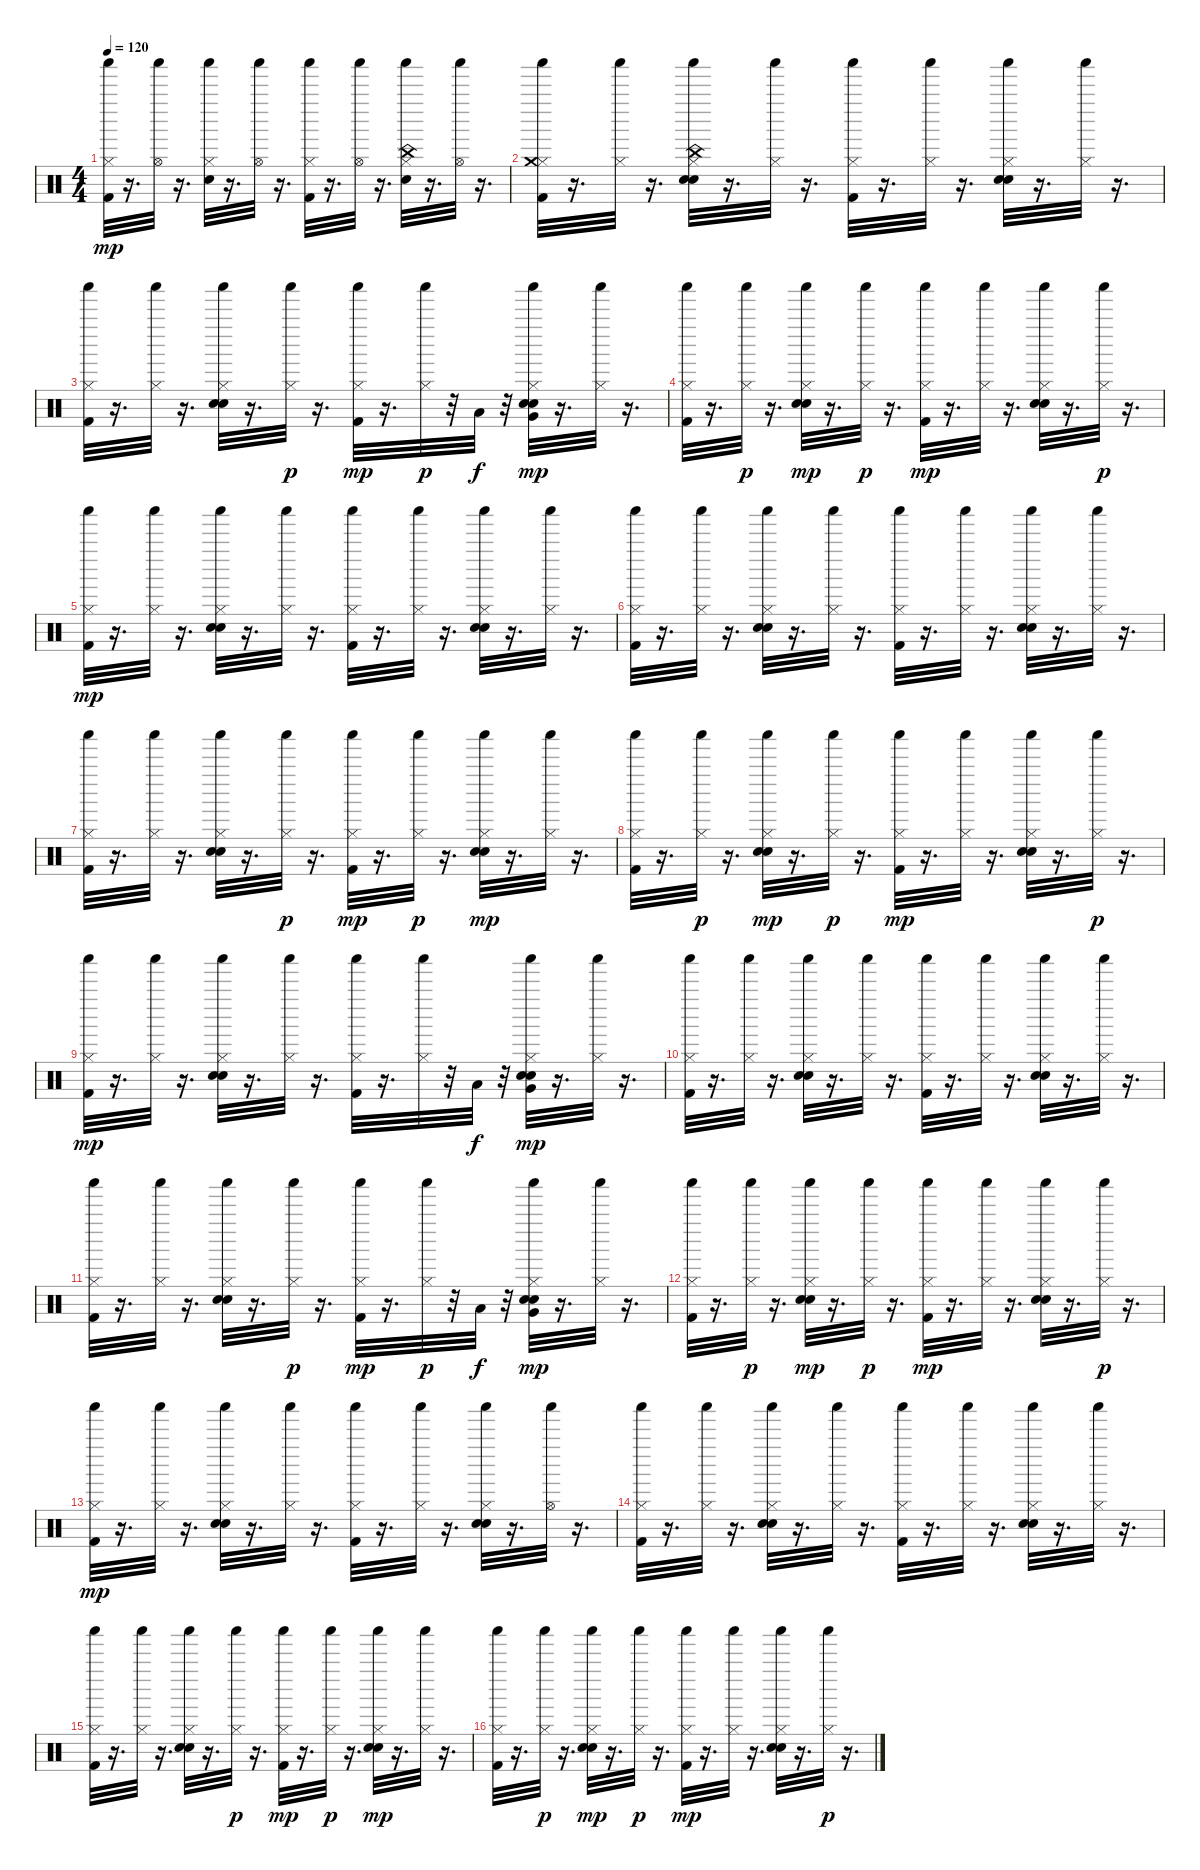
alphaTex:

\track "" {instrument percussion}
\staff {score}
\articulation defaults
\ts (4 4)
\tempo 120
\clef neutral
\ks c
("Kick (hit) 2" "Hi-Hat (closed)" "Shaker (hit)").32{dy mp} r.16{d} ("Hi-Hat (open)" "Shaker (hit)").32 r.16{d} ("Electric Snare (hit)" "Hi-Hat (closed)" "Shaker (hit)").32 r.16{d} ("Hi-Hat (open)" "Shaker (hit)").32 r.16{d} ("Kick (hit) 2" "Hi-Hat (closed)" "Shaker (hit)").32 r.16{d} ("Hi-Hat (open)" "Shaker (hit)").32 r.16{d} ("Electric Snare (hit)" "Hi-Hat (closed)" "China (hit)" "Shaker (hit)").32 r.16{d} ("Hi-Hat (open)" "Shaker (hit)").32 r.16{d} |
("Kick (hit) 2" "Hi-Hat (closed)" "Crash medium (hit)" "Shaker (hit)").32 r.16{d} ("Hi-Hat (closed)" "Shaker (hit)").32 r.16{d} ("Hand Clap (hit)" "Electric Snare (hit)" "Hi-Hat (closed)" "China (hit)" "Shaker (hit)").32 r.16{d} ("Hi-Hat (closed)" "Shaker (hit)").32 r.16{d} ("Kick (hit) 2" "Hi-Hat (closed)" "Shaker (hit)").32 r.16{d} ("Hi-Hat (closed)" "Shaker (hit)").32 r.16{d} ("Hand Clap (hit)" "Electric Snare (hit)" "Hi-Hat (closed)" "Shaker (hit)").32 r.16{d} ("Hi-Hat (closed)" "Shaker (hit)").32 r.16{d} |
("Kick (hit) 2" "Hi-Hat (closed)" "Shaker (hit)").32 r.16{d} ("Hi-Hat (closed)" "Shaker (hit)").32 r.16{d} ("Hand Clap (hit)" "Electric Snare (hit)" "Hi-Hat (closed)" "Shaker (hit)").32 r.16{d} ("Hi-Hat (closed)" "Shaker (hit)").32{dy p} r.16{d} ("Kick (hit) 2" "Hi-Hat (closed)" "Shaker (hit)").32{dy mp} r.16{d} ("Hi-Hat (closed)" "Shaker (hit)").32{dy p} r.32 "Low Tom (hit)".32{dy f} r.32 ("Hand Clap (hit)" "Electric Snare (hit)" "Hi-Hat (closed)" "Very Low Tom (hit)" "Shaker (hit)").32{dy mp} r.16{d} ("Hi-Hat (closed)" "Shaker (hit)").32 r.16{d} |
("Kick (hit) 2" "Hi-Hat (closed)" "Shaker (hit)").32 r.16{d} ("Hi-Hat (closed)" "Shaker (hit)").32{dy p} r.16{d} ("Hand Clap (hit)" "Electric Snare (hit)" "Hi-Hat (closed)" "Shaker (hit)").32{dy mp} r.16{d} ("Hi-Hat (closed)" "Shaker (hit)").32{dy p} r.16{d} ("Kick (hit) 2" "Hi-Hat (closed)" "Shaker (hit)").32{dy mp} r.16{d} ("Hi-Hat (closed)" "Shaker (hit)").32 r.16{d} ("Hand Clap (hit)" "Electric Snare (hit)" "Hi-Hat (closed)" "Shaker (hit)").32 r.16{d} ("Hi-Hat (closed)" "Shaker (hit)").32{dy p} r.16{d} |
("Kick (hit) 2" "Hi-Hat (closed)" "Shaker (hit)").32{dy mp} r.16{d} ("Hi-Hat (closed)" "Shaker (hit)").32 r.16{d} ("Hand Clap (hit)" "Electric Snare (hit)" "Hi-Hat (closed)" "Shaker (hit)").32 r.16{d} ("Hi-Hat (closed)" "Shaker (hit)").32 r.16{d} ("Kick (hit) 2" "Hi-Hat (closed)" "Shaker (hit)").32 r.16{d} ("Hi-Hat (closed)" "Shaker (hit)").32 r.16{d} ("Hand Clap (hit)" "Electric Snare (hit)" "Hi-Hat (closed)" "Shaker (hit)").32 r.16{d} ("Hi-Hat (closed)" "Shaker (hit)").32 r.16{d} |
("Kick (hit) 2" "Hi-Hat (closed)" "Shaker (hit)").32 r.16{d} ("Hi-Hat (closed)" "Shaker (hit)").32 r.16{d} ("Hand Clap (hit)" "Electric Snare (hit)" "Hi-Hat (closed)" "Shaker (hit)").32 r.16{d} ("Hi-Hat (closed)" "Shaker (hit)").32 r.16{d} ("Kick (hit) 2" "Hi-Hat (closed)" "Shaker (hit)").32 r.16{d} ("Hi-Hat (closed)" "Shaker (hit)").32 r.16{d} ("Hand Clap (hit)" "Electric Snare (hit)" "Hi-Hat (closed)" "Shaker (hit)").32 r.16{d} ("Hi-Hat (closed)" "Shaker (hit)").32 r.16{d} |
("Kick (hit) 2" "Hi-Hat (closed)" "Shaker (hit)").32 r.16{d} ("Hi-Hat (closed)" "Shaker (hit)").32 r.16{d} ("Hand Clap (hit)" "Electric Snare (hit)" "Hi-Hat (closed)" "Shaker (hit)").32 r.16{d} ("Hi-Hat (closed)" "Shaker (hit)").32{dy p} r.16{d} ("Kick (hit) 2" "Hi-Hat (closed)" "Shaker (hit)").32{dy mp} r.16{d} ("Hi-Hat (closed)" "Shaker (hit)").32{dy p} r.16{d} ("Hand Clap (hit)" "Electric Snare (hit)" "Hi-Hat (closed)" "Shaker (hit)").32{dy mp} r.16{d} ("Hi-Hat (closed)" "Shaker (hit)").32 r.16{d} |
("Kick (hit) 2" "Hi-Hat (closed)" "Shaker (hit)").32 r.16{d} ("Hi-Hat (closed)" "Shaker (hit)").32{dy p} r.16{d} ("Hand Clap (hit)" "Electric Snare (hit)" "Hi-Hat (closed)" "Shaker (hit)").32{dy mp} r.16{d} ("Hi-Hat (closed)" "Shaker (hit)").32{dy p} r.16{d} ("Kick (hit) 2" "Hi-Hat (closed)" "Shaker (hit)").32{dy mp} r.16{d} ("Hi-Hat (closed)" "Shaker (hit)").32 r.16{d} ("Hand Clap (hit)" "Electric Snare (hit)" "Hi-Hat (closed)" "Shaker (hit)").32 r.16{d} ("Hi-Hat (closed)" "Shaker (hit)").32{dy p} r.16{d} |
("Kick (hit) 2" "Hi-Hat (closed)" "Shaker (hit)").32{dy mp} r.16{d} ("Hi-Hat (closed)" "Shaker (hit)").32 r.16{d} ("Hand Clap (hit)" "Electric Snare (hit)" "Hi-Hat (closed)" "Shaker (hit)").32 r.16{d} ("Hi-Hat (closed)" "Shaker (hit)").32 r.16{d} ("Kick (hit) 2" "Hi-Hat (closed)" "Shaker (hit)").32 r.16{d} ("Hi-Hat (closed)" "Shaker (hit)").32 r.32 "Low Tom (hit)".32{dy f} r.32 ("Hand Clap (hit)" "Electric Snare (hit)" "Hi-Hat (closed)" "Very Low Tom (hit)" "Shaker (hit)").32{dy mp} r.16{d} ("Hi-Hat (closed)" "Shaker (hit)").32 r.16{d} |
("Kick (hit) 2" "Hi-Hat (closed)" "Shaker (hit)").32 r.16{d} ("Hi-Hat (closed)" "Shaker (hit)").32 r.16{d} ("Hand Clap (hit)" "Electric Snare (hit)" "Hi-Hat (closed)" "Shaker (hit)").32 r.16{d} ("Hi-Hat (closed)" "Shaker (hit)").32 r.16{d} ("Kick (hit) 2" "Hi-Hat (closed)" "Shaker (hit)").32 r.16{d} ("Hi-Hat (closed)" "Shaker (hit)").32 r.16{d} ("Hand Clap (hit)" "Electric Snare (hit)" "Hi-Hat (closed)" "Shaker (hit)").32 r.16{d} ("Hi-Hat (closed)" "Shaker (hit)").32 r.16{d} |
("Kick (hit) 2" "Hi-Hat (closed)" "Shaker (hit)").32 r.16{d} ("Hi-Hat (closed)" "Shaker (hit)").32 r.16{d} ("Hand Clap (hit)" "Electric Snare (hit)" "Hi-Hat (closed)" "Shaker (hit)").32 r.16{d} ("Hi-Hat (closed)" "Shaker (hit)").32{dy p} r.16{d} ("Kick (hit) 2" "Hi-Hat (closed)" "Shaker (hit)").32{dy mp} r.16{d} ("Hi-Hat (closed)" "Shaker (hit)").32{dy p} r.32 "Low Tom (hit)".32{dy f} r.32 ("Hand Clap (hit)" "Electric Snare (hit)" "Hi-Hat (closed)" "Very Low Tom (hit)" "Shaker (hit)").32{dy mp} r.16{d} ("Hi-Hat (closed)" "Shaker (hit)").32 r.16{d} |
("Kick (hit) 2" "Hi-Hat (closed)" "Shaker (hit)").32 r.16{d} ("Hi-Hat (closed)" "Shaker (hit)").32{dy p} r.16{d} ("Hand Clap (hit)" "Electric Snare (hit)" "Hi-Hat (closed)" "Shaker (hit)").32{dy mp} r.16{d} ("Hi-Hat (closed)" "Shaker (hit)").32{dy p} r.16{d} ("Kick (hit) 2" "Hi-Hat (closed)" "Shaker (hit)").32{dy mp} r.16{d} ("Hi-Hat (closed)" "Shaker (hit)").32 r.16{d} ("Hand Clap (hit)" "Electric Snare (hit)" "Hi-Hat (closed)" "Shaker (hit)").32 r.16{d} ("Hi-Hat (closed)" "Shaker (hit)").32{dy p} r.16{d} |
("Kick (hit) 2" "Hi-Hat (closed)" "Shaker (hit)").32{dy mp} r.16{d} ("Hi-Hat (closed)" "Shaker (hit)").32 r.16{d} ("Hand Clap (hit)" "Electric Snare (hit)" "Hi-Hat (closed)" "Shaker (hit)").32 r.16{d} ("Hi-Hat (closed)" "Shaker (hit)").32 r.16{d} ("Kick (hit) 2" "Hi-Hat (closed)" "Shaker (hit)").32 r.16{d} ("Hi-Hat (closed)" "Shaker (hit)").32 r.16{d} ("Hand Clap (hit)" "Electric Snare (hit)" "Hi-Hat (closed)" "Shaker (hit)").32 r.16{d} ("Hi-Hat (open)" "Shaker (hit)").32 r.16{d} |
("Kick (hit) 2" "Hi-Hat (closed)" "Shaker (hit)").32 r.16{d} ("Hi-Hat (closed)" "Shaker (hit)").32 r.16{d} ("Hand Clap (hit)" "Electric Snare (hit)" "Hi-Hat (closed)" "Shaker (hit)").32 r.16{d} ("Hi-Hat (closed)" "Shaker (hit)").32 r.16{d} ("Kick (hit) 2" "Hi-Hat (closed)" "Shaker (hit)").32 r.16{d} ("Hi-Hat (closed)" "Shaker (hit)").32 r.16{d} ("Hand Clap (hit)" "Electric Snare (hit)" "Hi-Hat (closed)" "Shaker (hit)").32 r.16{d} ("Hi-Hat (closed)" "Shaker (hit)").32 r.16{d} |
("Kick (hit) 2" "Hi-Hat (closed)" "Shaker (hit)").32 r.16{d} ("Hi-Hat (closed)" "Shaker (hit)").32 r.16{d} ("Hand Clap (hit)" "Electric Snare (hit)" "Hi-Hat (closed)" "Shaker (hit)").32 r.16{d} ("Hi-Hat (closed)" "Shaker (hit)").32{dy p} r.16{d} ("Kick (hit) 2" "Hi-Hat (closed)" "Shaker (hit)").32{dy mp} r.16{d} ("Hi-Hat (closed)" "Shaker (hit)").32{dy p} r.16{d} ("Hand Clap (hit)" "Electric Snare (hit)" "Hi-Hat (closed)" "Shaker (hit)").32{dy mp} r.16{d} ("Hi-Hat (closed)" "Shaker (hit)").32 r.16{d} |
("Kick (hit) 2" "Hi-Hat (closed)" "Shaker (hit)").32 r.16{d} ("Hi-Hat (closed)" "Shaker (hit)").32{dy p} r.16{d} ("Hand Clap (hit)" "Electric Snare (hit)" "Hi-Hat (closed)" "Shaker (hit)").32{dy mp} r.16{d} ("Hi-Hat (closed)" "Shaker (hit)").32{dy p} r.16{d} ("Kick (hit) 2" "Hi-Hat (closed)" "Shaker (hit)").32{dy mp} r.16{d} ("Hi-Hat (closed)" "Shaker (hit)").32 r.16{d} ("Hand Clap (hit)" "Electric Snare (hit)" "Hi-Hat (closed)" "Shaker (hit)").32 r.16{d} ("Hi-Hat (closed)" "Shaker (hit)").32{dy p} r.16{d}
